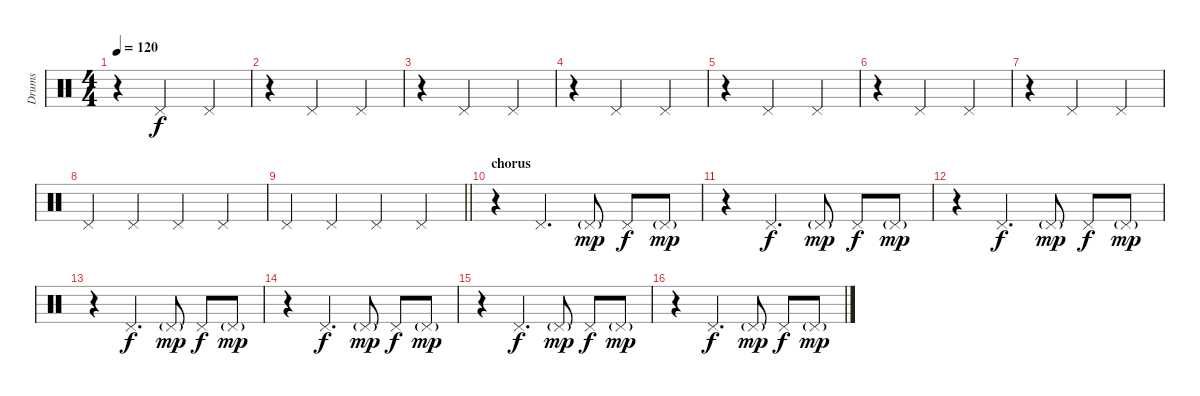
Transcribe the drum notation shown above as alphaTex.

\track ("Drums" "Drums") {instrument percussion}
\staff {score}
\articulation defaults
\ts (4 4)
\tempo 120
\clef neutral
\ks c
r.4{dy f} "Pedal Hi-Hat (hit)".2 "Pedal Hi-Hat (hit)".4 |
r.4 "Pedal Hi-Hat (hit)".2 "Pedal Hi-Hat (hit)".4 |
r.4 "Pedal Hi-Hat (hit)".2 "Pedal Hi-Hat (hit)".4 |
r.4 "Pedal Hi-Hat (hit)".2 "Pedal Hi-Hat (hit)".4 |
r.4 "Pedal Hi-Hat (hit)".2 "Pedal Hi-Hat (hit)".4 |
r.4 "Pedal Hi-Hat (hit)".2 "Pedal Hi-Hat (hit)".4 |
r.4 "Pedal Hi-Hat (hit)".2 "Pedal Hi-Hat (hit)".4 |
"Pedal Hi-Hat (hit)".4 "Pedal Hi-Hat (hit)".4 "Pedal Hi-Hat (hit)".4 "Pedal Hi-Hat (hit)".4 |
\barLineRight lightlight "Pedal Hi-Hat (hit)".4 "Pedal Hi-Hat (hit)".4 "Pedal Hi-Hat (hit)".4 "Pedal Hi-Hat (hit)".4
|
\section ("" "chorus")
r.4 "Pedal Hi-Hat (hit)".4{d} "Pedal Hi-Hat (hit)"{g}.8{dy mp} "Pedal Hi-Hat (hit)".8{dy f} "Pedal Hi-Hat (hit)"{g}.8{dy mp} |
r.4 "Pedal Hi-Hat (hit)".4{d dy f} "Pedal Hi-Hat (hit)"{g}.8{dy mp} "Pedal Hi-Hat (hit)".8{dy f} "Pedal Hi-Hat (hit)"{g}.8{dy mp} |
r.4 "Pedal Hi-Hat (hit)".4{d dy f} "Pedal Hi-Hat (hit)"{g}.8{dy mp} "Pedal Hi-Hat (hit)".8{dy f} "Pedal Hi-Hat (hit)"{g}.8{dy mp} |
r.4 "Pedal Hi-Hat (hit)".4{d dy f} "Pedal Hi-Hat (hit)"{g}.8{dy mp} "Pedal Hi-Hat (hit)".8{dy f} "Pedal Hi-Hat (hit)"{g}.8{dy mp} |
r.4 "Pedal Hi-Hat (hit)".4{d dy f} "Pedal Hi-Hat (hit)"{g}.8{dy mp} "Pedal Hi-Hat (hit)".8{dy f} "Pedal Hi-Hat (hit)"{g}.8{dy mp} |
r.4 "Pedal Hi-Hat (hit)".4{d dy f} "Pedal Hi-Hat (hit)"{g}.8{dy mp} "Pedal Hi-Hat (hit)".8{dy f} "Pedal Hi-Hat (hit)"{g}.8{dy mp} |
r.4 "Pedal Hi-Hat (hit)".4{d dy f} "Pedal Hi-Hat (hit)"{g}.8{dy mp} "Pedal Hi-Hat (hit)".8{dy f} "Pedal Hi-Hat (hit)"{g}.8{dy mp}
